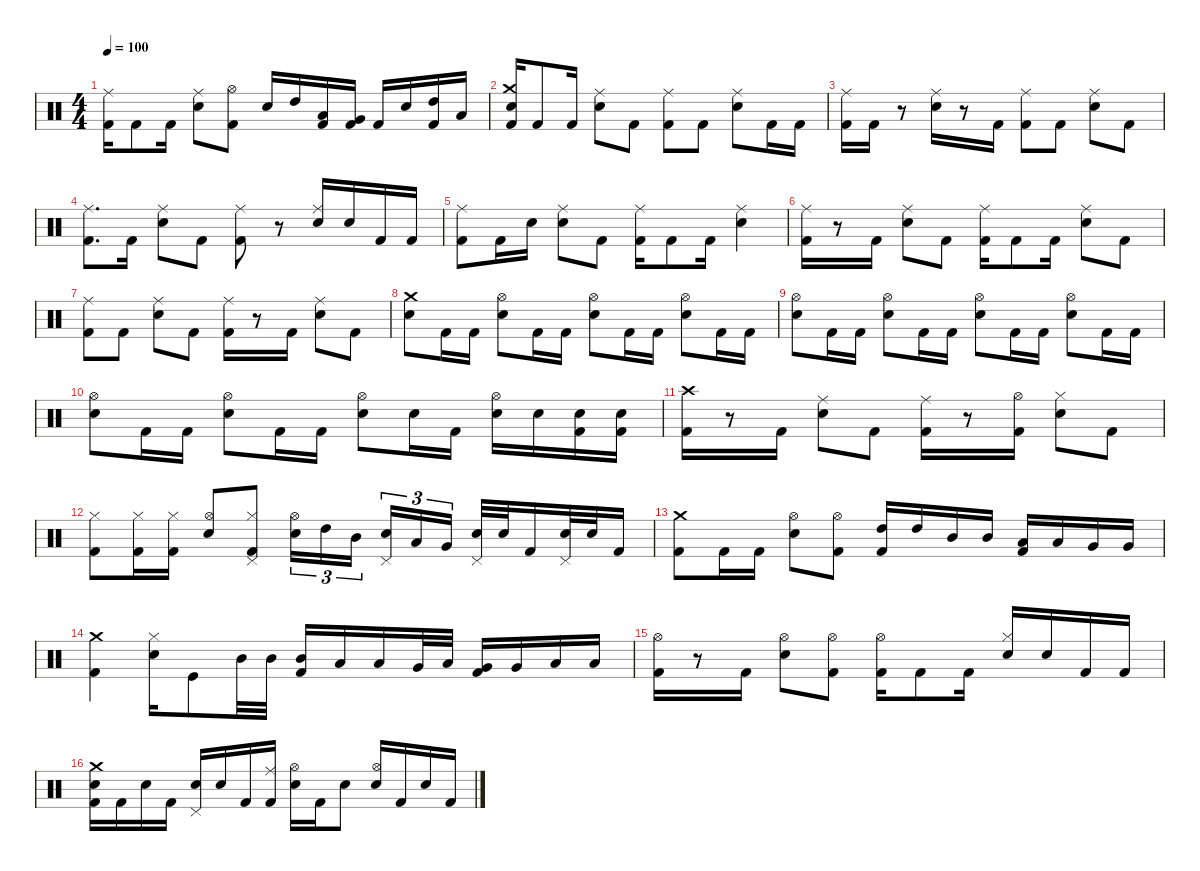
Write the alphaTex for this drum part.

\defaultSystemsLayout 4
\hideDynamics
\bracketExtendMode nobrackets
\singleTrackTrackNamePolicy hidden
\multiTrackTrackNamePolicy hidden
\firstSystemTrackNameMode fullname
\firstSystemTrackNameOrientation horizontal
\otherSystemsTrackNameOrientation horizontal
\track ("Drums" "drm.") {instrument percussion}
\staff {score}
\articulation defaults
\ts (4 4)
\tempo 100
\clef neutral
\ks c
("Ride (middle)" "Kick (hit) 2").16{dy f beam Down} "Kick (hit) 2".8{beam Down} "Kick (hit) 2".16{beam Down} ("Ride (middle)" "Snare (hit) 2").8{beam Down} ("Kick (hit) 2" "Hi-Hat (open)").8{beam Down} "Snare (hit) 2".16{beam Up} "High Tom (hit)".16{dy mp beam Up} ("Low Tom (hit)" "Kick (hit) 2").16{beam Up} ("Very Low Tom (hit)" "Kick (hit) 2").16{beam Up} "Kick (hit) 2".16{dy f beam Up} "Snare (hit) 2".16{beam Up} ("Kick (hit) 2" "High Tom (hit)").16{beam Up} "Low Tom (hit)".16{dy mp beam Up} |
("Kick (hit) 2" "Snare (hit) 2" "Crash medium (hit)").16{dy f beam Up} "Kick (hit) 2".8{beam Up} "Kick (hit) 2".16{beam Up} ("Ride (middle)" "Snare (hit) 2").8{beam Down} "Kick (hit) 2".8{beam Down} ("Kick (hit) 2" "Ride (middle)").8{beam Down} "Kick (hit) 2".8{beam Down} ("Snare (hit) 2" "Ride (middle)").8{beam Down} "Kick (hit) 2".16{beam Down} "Kick (hit) 2".16{beam Down} |
("Ride (middle)" "Kick (hit) 2").16{beam Down} "Kick (hit) 2".16{beam Down} r.8{beam Down} ("Ride (middle)" "Snare (hit) 2").16{beam Down} r.8{beam Down} "Kick (hit) 2".16{dy mf beam Down} ("Kick (hit) 2" "Ride (middle)").8{dy f beam Down} "Kick (hit) 2".8{beam Down} ("Snare (hit) 2" "Ride (middle)").8{beam Down} "Kick (hit) 2".8{beam Down} |
("Kick (hit) 2" "Ride (middle)").8{d beam Down} "Kick (hit) 2".16{beam Down} ("Snare (hit) 2" "Ride (middle)").8{beam Down} "Kick (hit) 2".8{beam Down} ("Kick (hit) 2" "Ride (middle)").8{beam Down} r.8{beam Down} ("Snare (hit) 2" "Ride (middle)").16{beam Up} "Snare (hit) 2".16{dy mp beam Up} "Kick (hit) 2".16{dy f beam Up} "Kick (hit) 2".16{beam Up} |
("Kick (hit) 2" "Ride (middle)").8{beam Down} "Kick (hit) 2".16{beam Down} "Snare (hit) 2".16{dy p beam Down} ("Ride (middle)" "Snare (hit) 2").8{dy f beam Down} "Kick (hit) 2".8{beam Down} ("Ride (middle)" "Kick (hit) 2").16{beam Down} "Kick (hit) 2".8{beam Down} "Kick (hit) 2".16{beam Down} ("Ride (middle)" "Snare (hit) 2").4{beam Down} |
("Ride (middle)" "Kick (hit) 2").16{beam Down} r.8{beam Down} "Kick (hit) 2".16{beam Down} ("Ride (middle)" "Snare (hit) 2").8{beam Down} "Kick (hit) 2".8{beam Down} ("Ride (middle)" "Kick (hit) 2").16{beam Down} "Kick (hit) 2".8{beam Down} "Kick (hit) 2".16{beam Down} ("Ride (middle)" "Snare (hit) 2").8{beam Down} "Kick (hit) 2".8{beam Down} |
("Ride (middle)" "Kick (hit) 2").8{beam Down} "Kick (hit) 2".8{beam Down} ("Ride (middle)" "Snare (hit) 2").8{beam Down} "Kick (hit) 2".8{beam Down} ("Ride (middle)" "Kick (hit) 2").16{beam Down} r.8{beam Down} "Kick (hit) 2".16{beam Down} ("Ride (middle)" "Snare (hit) 2").8{beam Down} "Kick (hit) 2".8{beam Down} |
("Crash medium (hit)" "Snare (hit) 2").8{dy mp beam Down} "Kick (hit) 2".16{dy f beam Down} "Kick (hit) 2".16{beam Down} ("Hi-Hat (open)" "Snare (hit) 2").8{dy mf beam Down} "Kick (hit) 2".16{dy f beam Down} "Kick (hit) 2".16{beam Down} ("Snare (hit) 2" "Hi-Hat (open)").8{beam Down} "Kick (hit) 2".16{beam Down} "Kick (hit) 2".16{beam Down} ("Snare (hit) 2" "Hi-Hat (open)").8{beam Down} "Kick (hit) 2".16{beam Down} "Kick (hit) 2".16{beam Down} |
("Snare (hit) 2" "Hi-Hat (open)").8{beam Down} "Kick (hit) 2".16{beam Down} "Kick (hit) 2".16{beam Down} ("Hi-Hat (open)" "Snare (hit) 2").8{beam Down} "Kick (hit) 2".16{beam Down} "Kick (hit) 2".16{beam Down} ("Hi-Hat (open)" "Snare (hit) 2").8{beam Down} "Kick (hit) 2".16{beam Down} "Kick (hit) 2".16{beam Down} ("Snare (hit) 2" "Hi-Hat (open)").8{beam Down} "Kick (hit) 2".16{beam Down} "Kick (hit) 2".16{beam Down} |
("Snare (hit) 2" "Hi-Hat (open)").8{beam Down} "Kick (hit) 2".16{beam Down} "Kick (hit) 2".16{beam Down} ("Snare (hit) 2" "Hi-Hat (open)").8{beam Down} "Kick (hit) 2".16{beam Down} "Kick (hit) 2".16{beam Down} ("Snare (hit) 2" "Hi-Hat (open)").8{beam Down} "Snare (hit) 2".16{beam Down} "Kick (hit) 2".16{beam Down} ("Hi-Hat (open)" "Snare (hit) 2").16{beam Down} "Snare (hit) 2".16{beam Down} ("Snare (hit) 2" "Kick (hit) 2").16{beam Down} ("Snare (hit) 2" "Kick (hit) 2").16{beam Down} |
("Kick (hit) 2" "Crash high (hit)").16{beam Down} r.8{beam Down} "Kick (hit) 2".16{beam Down} ("Ride (middle)" "Snare (hit) 2").8{beam Down} "Kick (hit) 2".8{beam Down} ("Ride (middle)" "Kick (hit) 2").16{beam Down} r.8{beam Down} ("Hi-Hat (open)" "Kick (hit) 2").16{dy p beam Down} ("Hi-Hat (closed)" "Snare (hit) 2").8{dy f beam Down} "Kick (hit) 2".8{beam Down} |
("Hi-Hat (closed)" "Kick (hit) 2").8{dy mf beam Down} ("Hi-Hat (closed)" "Kick (hit) 2").16{beam Down} ("Hi-Hat (closed)" "Kick (hit) 2").16{beam Down} ("Hi-Hat (open)" "Snare (hit) 2").8{beam Up} ("Hi-Hat (closed)" "Pedal Hi-Hat (hit)" "Kick (hit) 2").8{beam Up} ("Hi-Hat (open)" "Snare (hit) 2").16{tu (3 2) dy mp beam Down} "High Tom (hit)".16{tu (3 2) dy mf beam Down} "Mid Tom (hit)".16{tu (3 2) dy mp beam Down} ("Pedal Hi-Hat (hit)" "Snare (hit) 2").16{tu (3 2) beam Up} "Low Tom (hit)".16{tu (3 2) beam Up} "Very Low Tom (hit)".16{tu (3 2) beam Up} ("Pedal Hi-Hat (hit)" "Snare (hit) 2").32{beam Up} "Snare (hit) 2".32{beam Up} "Kick (hit) 2".16{dy f beam Up} ("Pedal Hi-Hat (hit)" "Snare (hit) 2").32{dy mp beam Up} "Snare (hit) 2".32{beam Up} "Kick (hit) 2".16{dy f beam Up} |
("Kick (hit) 2" "Crash medium (hit)").8{beam Down} "Kick (hit) 2".16{beam Down} "Kick (hit) 2".16{beam Down} ("Hi-Hat (open)" "Snare (hit) 2").8{beam Down} ("Kick (hit) 2" "Hi-Hat (open)").8{beam Down} ("Kick (hit) 2" "High Tom (hit)").16{beam Up} "High Tom (hit)".16{dy mf beam Up} "Mid Tom (hit)".16{beam Up} "Mid Tom (hit)".16{dy mp beam Up} ("Kick (hit) 2" "Low Tom (hit)").16{dy f beam Up} "Low Tom (hit)".16{dy mf beam Up} "Very Low Tom (hit)".16{dy mp beam Up} "Very Low Tom (hit)".16{beam Up} |
("Kick (hit) 2" "Crash medium (hit)").4{dy f beam Down} ("Hi-Hat (closed)" "Snare (hit) 2").16{beam Down} "Kick (hit)".8{beam Down} "Mid Tom (hit)".32{dy mp beam Down} "Mid Tom (hit)".32{dy p beam Down} ("Kick (hit) 2" "Mid Tom (hit)").16{dy f beam Up} "Low Tom (hit)".16{beam Up} "Low Tom (hit)".16{dy mf beam Up} "Very Low Tom (hit)".32{beam Up} "Low Tom (hit)".32{dy mp beam Up} ("Kick (hit) 2" "Very Low Tom (hit)").16{dy f beam Up} "Very Low Tom (hit)".16{dy mf beam Up} "Low Floor Tom (hit)".16{dy mp beam Up} "Low Floor Tom (hit)".16{beam Up} |
("Kick (hit) 2" "Hi-Hat (open)").16{dy f beam Down} r.8{beam Down} "Kick (hit) 2".16{beam Down} ("Hi-Hat (open)" "Snare (hit) 2").8{dy mf beam Down} ("Kick (hit) 2" "Hi-Hat (open)").8{dy fff beam Down} ("Hi-Hat (open)" "Kick (hit) 2").16{beam Down} "Kick (hit) 2".8{dy f beam Down} "Kick (hit) 2".16{beam Down} ("Hi-Hat (closed)" "Snare (hit) 2").16{dy fff beam Up} "Snare (hit) 2".16{dy f beam Up} "Kick (hit) 2".16{beam Up} "Kick (hit) 2".16{beam Up} |
("Crash medium (hit)" "Snare (hit) 2" "Kick (hit) 2").16{dy mf beam Down} "Kick (hit) 2".16{beam Down} "Snare (hit) 2".16{dy f beam Down} "Kick (hit) 2".16{beam Down} ("Pedal Hi-Hat (hit)" "Snare (hit) 2").16{beam Up} "Snare (hit) 2".16{dy mf beam Up} "Kick (hit) 2".16{dy f beam Up} ("Ride (middle)" "Kick (hit) 2").16{beam Up} ("Hi-Hat (open)" "Snare (hit) 2").16{dy mf beam Down} "Kick (hit) 2".16{dy f beam Down} "Snare (hit) 2".8{beam Down} ("Hi-Hat (open)" "Snare (hit) 2").16{dy mf beam Up} "Kick (hit) 2".16{dy f beam Up} "Snare (hit) 2".16{beam Up} "Kick (hit) 2".16{beam Up}
